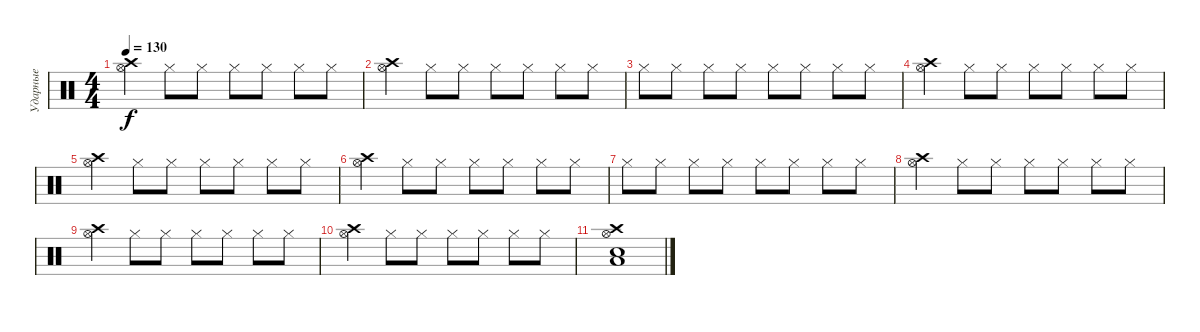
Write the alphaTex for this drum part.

\track ("Ударные" "Ударные") {instrument percussion}
\staff {score}
\articulation defaults
\ts (4 4)
\tempo 130
\clef neutral
\ks c
("Hi-Hat (open)" "Crash high (hit)").4{dy f} "Hi-Hat (closed)".8 "Hi-Hat (closed)".8 "Hi-Hat (closed)".8 "Hi-Hat (closed)".8 "Hi-Hat (closed)".8 "Hi-Hat (closed)".8 |
("Hi-Hat (open)" "Crash high (hit)").4 "Hi-Hat (closed)".8 "Hi-Hat (closed)".8 "Hi-Hat (closed)".8 "Hi-Hat (closed)".8 "Hi-Hat (closed)".8 "Hi-Hat (closed)".8 |
"Hi-Hat (closed)".8 "Hi-Hat (closed)".8 "Hi-Hat (closed)".8 "Hi-Hat (closed)".8 "Hi-Hat (closed)".8 "Hi-Hat (closed)".8 "Hi-Hat (closed)".8 "Hi-Hat (closed)".8 |
("Hi-Hat (open)" "Crash high (hit)").4 "Hi-Hat (closed)".8 "Hi-Hat (closed)".8 "Hi-Hat (closed)".8 "Hi-Hat (closed)".8 "Hi-Hat (closed)".8 "Hi-Hat (closed)".8 |
("Hi-Hat (open)" "Crash high (hit)").4 "Hi-Hat (closed)".8 "Hi-Hat (closed)".8 "Hi-Hat (closed)".8 "Hi-Hat (closed)".8 "Hi-Hat (closed)".8 "Hi-Hat (closed)".8 |
("Hi-Hat (open)" "Crash high (hit)").4 "Hi-Hat (closed)".8 "Hi-Hat (closed)".8 "Hi-Hat (closed)".8 "Hi-Hat (closed)".8 "Hi-Hat (closed)".8 "Hi-Hat (closed)".8 |
"Hi-Hat (closed)".8 "Hi-Hat (closed)".8 "Hi-Hat (closed)".8 "Hi-Hat (closed)".8 "Hi-Hat (closed)".8 "Hi-Hat (closed)".8 "Hi-Hat (closed)".8 "Hi-Hat (closed)".8 |
("Hi-Hat (open)" "Crash high (hit)").4 "Hi-Hat (closed)".8 "Hi-Hat (closed)".8 "Hi-Hat (closed)".8 "Hi-Hat (closed)".8 "Hi-Hat (closed)".8 "Hi-Hat (closed)".8 |
("Hi-Hat (open)" "Crash high (hit)").4 "Hi-Hat (closed)".8 "Hi-Hat (closed)".8 "Hi-Hat (closed)".8 "Hi-Hat (closed)".8 "Hi-Hat (closed)".8 "Hi-Hat (closed)".8 |
("Hi-Hat (open)" "Crash high (hit)").4 "Hi-Hat (closed)".8 "Hi-Hat (closed)".8 "Hi-Hat (closed)".8 "Hi-Hat (closed)".8 "Hi-Hat (closed)".8 "Hi-Hat (closed)".8 |
("Hi-Hat (open)" "Crash high (hit)" "Low Floor Tom (hit)" "Snare (hit) 2").1
